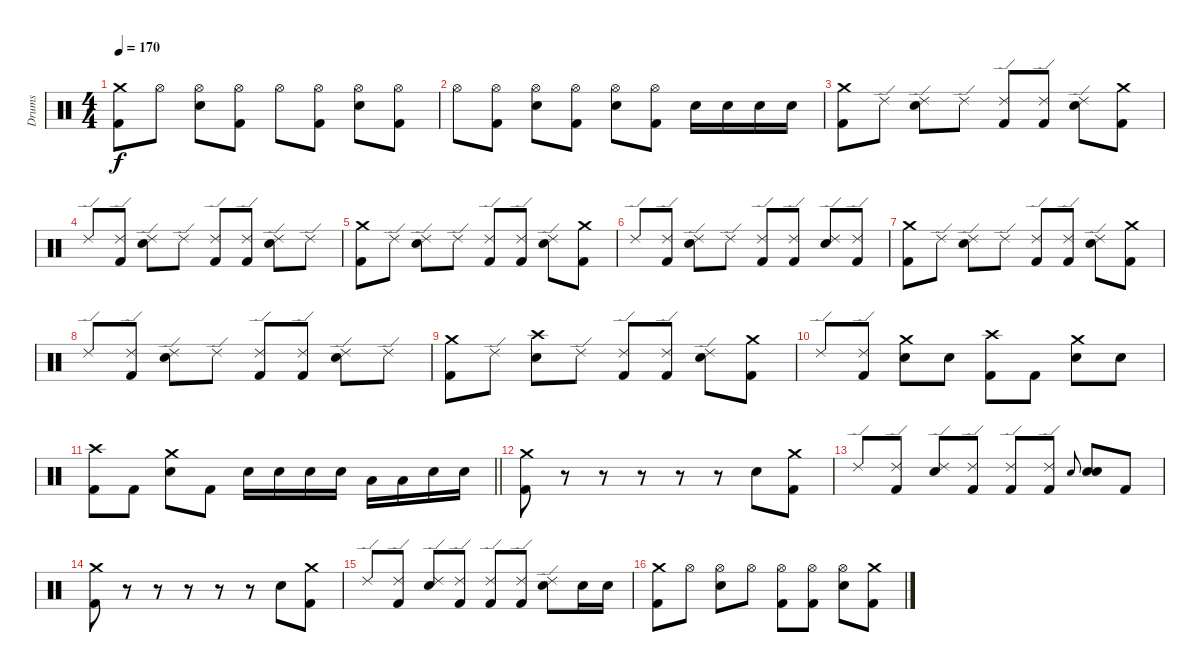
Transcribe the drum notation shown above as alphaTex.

\track ("Drums" "Drums") {instrument percussion}
\staff {score}
\articulation defaults
\ts (4 4)
\tempo 170
\clef neutral
\ks c
("Crash medium (hit)" "Kick (hit) 2").8{dy f} "Hi-Hat (open)".8 ("Hi-Hat (open)" "Electric Snare (hit)").8 ("Hi-Hat (open)" "Kick (hit) 2").8 "Hi-Hat (open)".8 ("Hi-Hat (open)" "Kick (hit) 2").8 ("Hi-Hat (open)" "Electric Snare (hit)").8 ("Hi-Hat (open)" "Kick (hit) 2").8 |
"Hi-Hat (open)".8 ("Hi-Hat (open)" "Kick (hit) 2").8 ("Hi-Hat (open)" "Electric Snare (hit)").8 ("Hi-Hat (open)" "Kick (hit) 2").8 ("Hi-Hat (open)" "Electric Snare (hit)").8 ("Hi-Hat (open)" "Kick (hit) 2").8 "Electric Snare (hit)".16 "Electric Snare (hit)".16 "Electric Snare (hit)".16 "Electric Snare (hit)".16 |
("Crash medium (hit)" "Kick (hit) 2").8 "Ride (edge) 2".8 ("Ride (edge) 2" "Electric Snare (hit)").8 "Ride (edge) 2".8 ("Ride (edge) 2" "Kick (hit) 2").8 ("Ride (edge) 2" "Kick (hit) 2").8 ("Ride (edge) 2" "Electric Snare (hit)").8 ("Crash medium (hit)" "Kick (hit) 2").8 |
"Ride (edge) 2".8 ("Ride (edge) 2" "Kick (hit) 2").8 ("Ride (edge) 2" "Electric Snare (hit)").8 "Ride (edge) 2".8 ("Ride (edge) 2" "Kick (hit) 2").8 ("Ride (edge) 2" "Kick (hit) 2").8 ("Ride (edge) 2" "Electric Snare (hit)").8 "Ride (edge) 2".8 |
("Crash medium (hit)" "Kick (hit) 2").8 "Ride (edge) 2".8 ("Ride (edge) 2" "Electric Snare (hit)").8 "Ride (edge) 2".8 ("Ride (edge) 2" "Kick (hit) 2").8 ("Ride (edge) 2" "Kick (hit) 2").8 ("Ride (edge) 2" "Electric Snare (hit)").8 ("Crash medium (hit)" "Kick (hit) 2").8 |
"Ride (edge) 2".8 ("Ride (edge) 2" "Kick (hit) 2").8 ("Ride (edge) 2" "Electric Snare (hit)").8 "Ride (edge) 2".8 ("Ride (edge) 2" "Kick (hit) 2").8 ("Ride (edge) 2" "Kick (hit) 2").8 ("Ride (edge) 2" "Electric Snare (hit)").8 ("Ride (edge) 2" "Kick (hit) 2").8 |
("Crash medium (hit)" "Kick (hit) 2").8 "Ride (edge) 2".8 ("Ride (edge) 2" "Electric Snare (hit)").8 "Ride (edge) 2".8 ("Ride (edge) 2" "Kick (hit) 2").8 ("Ride (edge) 2" "Kick (hit) 2").8 ("Ride (edge) 2" "Electric Snare (hit)").8 ("Crash medium (hit)" "Kick (hit) 2").8 |
"Ride (edge) 2".8 ("Ride (edge) 2" "Kick (hit) 2").8 ("Ride (edge) 2" "Electric Snare (hit)").8 "Ride (edge) 2".8 ("Ride (edge) 2" "Kick (hit) 2").8 ("Ride (edge) 2" "Kick (hit) 2").8 ("Ride (edge) 2" "Electric Snare (hit)").8 "Ride (edge) 2".8 |
("Crash medium (hit)" "Kick (hit) 2").8 "Ride (edge) 2".8 ("Crash high (hit)" "Electric Snare (hit)").8 "Ride (edge) 2".8 ("Ride (edge) 2" "Kick (hit) 2").8 ("Ride (edge) 2" "Kick (hit) 2").8 ("Ride (edge) 2" "Electric Snare (hit)").8 ("Crash medium (hit)" "Kick (hit) 2").8 |
"Ride (edge) 2".8 ("Ride (edge) 2" "Kick (hit) 2").8 ("Crash medium (hit)" "Electric Snare (hit)").8 "Electric Snare (hit)".8 ("Crash high (hit)" "Kick (hit) 2").8 "Kick (hit) 2".8 ("Crash medium (hit)" "Electric Snare (hit)").8 "Electric Snare (hit)".8 |
\barLineRight lightlight
("Crash high (hit)" "Kick (hit) 2").8 "Kick (hit) 2".8 ("Crash medium (hit)" "Electric Snare (hit)").8 "Kick (hit) 2".8 "Electric Snare (hit)".16 "Electric Snare (hit)".16 "Electric Snare (hit)".16 "Electric Snare (hit)".16 "Low Tom (hit)".16 "Low Tom (hit)".16 "Electric Snare (hit)".16 "Electric Snare (hit)".16 |
("Crash medium (hit)" "Kick (hit) 2").8 r.8 r.8 r.8 r.8 r.8 "Electric Snare (hit)".8 ("Crash medium (hit)" "Kick (hit) 2").8 |
"Ride (edge) 2".8 ("Ride (edge) 2" "Kick (hit) 2").8 ("Ride (edge) 2" "Electric Snare (hit)").8 ("Ride (edge) 2" "Kick (hit) 2").8 ("Ride (edge) 2" "Kick (hit) 2").8 ("Ride (edge) 2" "Kick (hit) 2").8 "Electric Snare (hit)".8{gr onbeat} ("Electric Snare (hit)" "Electric Snare (hit)").8 "Kick (hit) 2".8 |
("Crash medium (hit)" "Kick (hit) 2").8 r.8 r.8 r.8 r.8 r.8 "Electric Snare (hit)".8 ("Crash medium (hit)" "Kick (hit) 2").8 |
"Ride (edge) 2".8 ("Ride (edge) 2" "Kick (hit) 2").8 ("Ride (edge) 2" "Electric Snare (hit)").8 ("Ride (edge) 2" "Kick (hit) 2").8 ("Ride (edge) 2" "Kick (hit) 2").8 ("Ride (edge) 2" "Kick (hit) 2").8 ("Ride (edge) 2" "Electric Snare (hit)").8 "Electric Snare (hit)".16 "Electric Snare (hit)".16 |
("Crash medium (hit)" "Kick (hit) 2").8 "Hi-Hat (open)".8 ("Hi-Hat (open)" "Electric Snare (hit)").8 "Hi-Hat (open)".8 ("Hi-Hat (open)" "Kick (hit) 2").8 ("Hi-Hat (open)" "Kick (hit) 2").8 ("Hi-Hat (open)" "Electric Snare (hit)").8 ("Crash medium (hit)" "Kick (hit) 2").8
